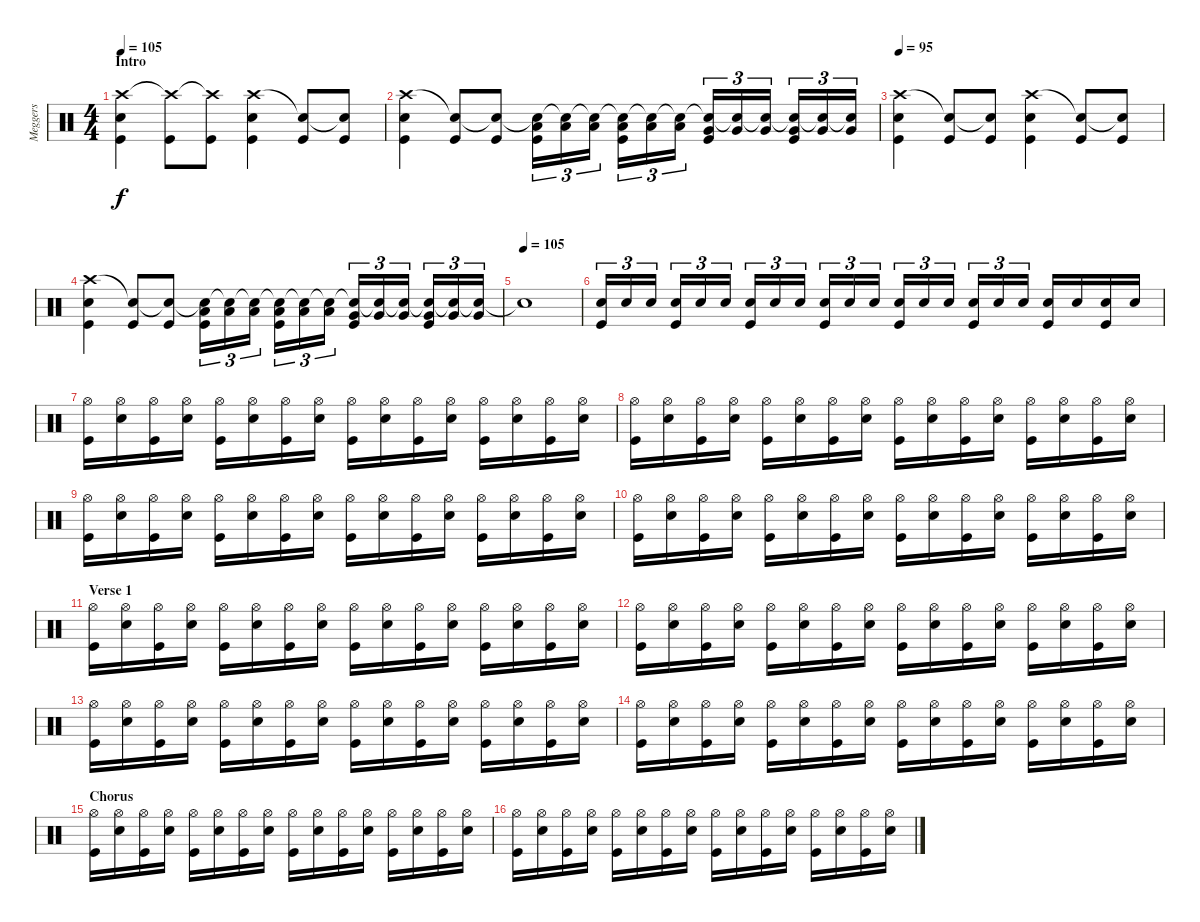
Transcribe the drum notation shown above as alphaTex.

\track ("Meggers" "Meggers") {instrument percussion}
\staff {score}
\articulation defaults
\ts (4 4)
\section ("" "Intro")
\tempo 105
\tempo 95
\tempo 105
\clef neutral
\ks c
("Crash high (hit)" "Snare (hit) 2" "Kick (hit)").4{dy f} ("Crash high (hit)"{t} "Kick (hit)").8 ("Crash high (hit)"{t} "Kick (hit)").8 ("Crash high (hit)" "Snare (hit) 2" "Kick (hit)").4 ("Snare (hit)"{t} "Kick (hit)").8 ("Snare (hit)"{t} "Kick (hit)").8 |
("Crash high (hit)" "Snare (hit) 2" "Kick (hit)").4 ("Snare (hit)"{t} "Kick (hit)").8 ("Snare (hit)"{t} "Kick (hit)").8 ("Snare (hit)"{t} "Low Tom (hit)" "Kick (hit)").16{tu (3 2)} ("Snare (hit)"{t} "Low Tom (hit)").16{tu (3 2)} ("Snare (hit)"{t} "Low Tom (hit)").16{tu (3 2)} ("Snare (hit)"{t} "Low Tom (hit)" "Kick (hit)").16{tu (3 2)} ("Snare (hit)"{t} "Low Tom (hit)").16{tu (3 2)} ("Snare (hit)"{t} "Low Tom (hit)").16{tu (3 2)} ("Snare (hit)"{t} "Very Low Tom (hit)" "Kick (hit)").16{tu (3 2)} ("Snare (hit)"{t} "Very Low Tom (hit)").16{tu (3 2)} ("Snare (hit)"{t} "Very Low Tom (hit)").16{tu (3 2)} ("Snare (hit)"{t} "Very Low Tom (hit)" "Kick (hit)").16{tu (3 2)} ("Snare (hit)"{t} "Very Low Tom (hit)").16{tu (3 2)} ("Snare (hit)"{t} "Very Low Tom (hit)").16{tu (3 2)} |
\tempo 95
("Crash high (hit)" "Snare (hit) 2" "Kick (hit)").4 ("Snare (hit)"{t} "Kick (hit)").8 ("Snare (hit)"{t} "Kick (hit)").8 ("Crash high (hit)" "Snare (hit) 2" "Kick (hit)").4 ("Snare (hit)"{t} "Kick (hit)").8 ("Snare (hit)"{t} "Kick (hit)").8 |
("Crash high (hit)" "Snare (hit) 2" "Kick (hit)").4 ("Snare (hit)"{t} "Kick (hit)").8 ("Snare (hit)"{t} "Kick (hit)").8 ("Snare (hit)"{t} "Low Tom (hit)" "Kick (hit)").16{tu (3 2)} ("Snare (hit)"{t} "Low Tom (hit)").16{tu (3 2)} ("Snare (hit)"{t} "Low Tom (hit)").16{tu (3 2)} ("Snare (hit)"{t} "Low Tom (hit)" "Kick (hit)").16{tu (3 2)} ("Snare (hit)"{t} "Low Tom (hit)").16{tu (3 2)} ("Snare (hit)"{t} "Low Tom (hit)").16{tu (3 2)} ("Snare (hit)"{t} "Very Low Tom (hit)" "Kick (hit)").16{tu (3 2)} ("Snare (hit)"{t} "Very Low Tom (hit)").16{tu (3 2)} ("Snare (hit)"{t} "Very Low Tom (hit)").16{tu (3 2)} ("Snare (hit)"{t} "Very Low Tom (hit)" "Kick (hit)").16{tu (3 2)} ("Snare (hit)"{t} "Very Low Tom (hit)").16{tu (3 2)} ("Snare (hit)"{t} "Very Low Tom (hit)").16{tu (3 2)} |
\tempo (105)
"Snare (hit)"{t}.1 |
("Snare (hit) 2" "Kick (hit)").16{tu (3 2)} "Snare (hit) 2".16{tu (3 2)} "Snare (hit) 2".16{tu (3 2)} ("Snare (hit) 2" "Kick (hit)").16{tu (3 2)} "Snare (hit) 2".16{tu (3 2)} "Snare (hit) 2".16{tu (3 2)} ("Snare (hit) 2" "Kick (hit)").16{tu (3 2)} "Snare (hit) 2".16{tu (3 2)} "Snare (hit) 2".16{tu (3 2)} ("Snare (hit) 2" "Kick (hit)").16{tu (3 2)} "Snare (hit) 2".16{tu (3 2)} "Snare (hit) 2".16{tu (3 2)} ("Snare (hit) 2" "Kick (hit)").16{tu (3 2)} "Snare (hit) 2".16{tu (3 2)} "Snare (hit) 2".16{tu (3 2)} ("Snare (hit) 2" "Kick (hit)").16{tu (3 2)} "Snare (hit) 2".16{tu (3 2)} "Snare (hit) 2".16{tu (3 2)} ("Snare (hit) 2" "Kick (hit)").16 "Snare (hit) 2".16 ("Snare (hit) 2" "Kick (hit)").16 "Snare (hit) 2".16 |
("Hi-Hat (open)" "Kick (hit)").16 ("Hi-Hat (open)" "Snare (hit) 2").16 ("Hi-Hat (open)" "Kick (hit)").16 ("Hi-Hat (open)" "Snare (hit) 2").16 ("Hi-Hat (open)" "Kick (hit)").16 ("Hi-Hat (open)" "Snare (hit) 2").16 ("Hi-Hat (open)" "Kick (hit)").16 ("Hi-Hat (open)" "Snare (hit) 2").16 ("Hi-Hat (open)" "Kick (hit)").16 ("Hi-Hat (open)" "Snare (hit) 2").16 ("Hi-Hat (open)" "Kick (hit)").16 ("Hi-Hat (open)" "Snare (hit) 2").16 ("Hi-Hat (open)" "Kick (hit)").16 ("Hi-Hat (open)" "Snare (hit) 2").16 ("Hi-Hat (open)" "Kick (hit)").16 ("Hi-Hat (open)" "Snare (hit) 2").16 |
("Hi-Hat (open)" "Kick (hit)").16 ("Hi-Hat (open)" "Snare (hit) 2").16 ("Hi-Hat (open)" "Kick (hit)").16 ("Hi-Hat (open)" "Snare (hit) 2").16 ("Hi-Hat (open)" "Kick (hit)").16 ("Hi-Hat (open)" "Snare (hit) 2").16 ("Hi-Hat (open)" "Kick (hit)").16 ("Hi-Hat (open)" "Snare (hit) 2").16 ("Hi-Hat (open)" "Kick (hit)").16 ("Hi-Hat (open)" "Snare (hit) 2").16 ("Hi-Hat (open)" "Kick (hit)").16 ("Hi-Hat (open)" "Snare (hit) 2").16 ("Hi-Hat (open)" "Kick (hit)").16 ("Hi-Hat (open)" "Snare (hit) 2").16 ("Hi-Hat (open)" "Kick (hit)").16 ("Hi-Hat (open)" "Snare (hit) 2").16 |
("Hi-Hat (open)" "Kick (hit)").16 ("Hi-Hat (open)" "Snare (hit) 2").16 ("Hi-Hat (open)" "Kick (hit)").16 ("Hi-Hat (open)" "Snare (hit) 2").16 ("Hi-Hat (open)" "Kick (hit)").16 ("Hi-Hat (open)" "Snare (hit) 2").16 ("Hi-Hat (open)" "Kick (hit)").16 ("Hi-Hat (open)" "Snare (hit) 2").16 ("Hi-Hat (open)" "Kick (hit)").16 ("Hi-Hat (open)" "Snare (hit) 2").16 ("Hi-Hat (open)" "Kick (hit)").16 ("Hi-Hat (open)" "Snare (hit) 2").16 ("Hi-Hat (open)" "Kick (hit)").16 ("Hi-Hat (open)" "Snare (hit) 2").16 ("Hi-Hat (open)" "Kick (hit)").16 ("Hi-Hat (open)" "Snare (hit) 2").16 |
("Hi-Hat (open)" "Kick (hit)").16 ("Hi-Hat (open)" "Snare (hit) 2").16 ("Hi-Hat (open)" "Kick (hit)").16 ("Hi-Hat (open)" "Snare (hit) 2").16 ("Hi-Hat (open)" "Kick (hit)").16 ("Hi-Hat (open)" "Snare (hit) 2").16 ("Hi-Hat (open)" "Kick (hit)").16 ("Hi-Hat (open)" "Snare (hit) 2").16 ("Hi-Hat (open)" "Kick (hit)").16 ("Hi-Hat (open)" "Snare (hit) 2").16 ("Hi-Hat (open)" "Kick (hit)").16 ("Hi-Hat (open)" "Snare (hit) 2").16 ("Hi-Hat (open)" "Kick (hit)").16 ("Hi-Hat (open)" "Snare (hit) 2").16 ("Hi-Hat (open)" "Kick (hit)").16 ("Hi-Hat (open)" "Snare (hit) 2").16 |
\section ("" "Verse 1")
("Hi-Hat (open)" "Kick (hit)").16 ("Hi-Hat (open)" "Snare (hit) 2").16 ("Hi-Hat (open)" "Kick (hit)").16 ("Hi-Hat (open)" "Snare (hit) 2").16 ("Hi-Hat (open)" "Kick (hit)").16 ("Hi-Hat (open)" "Snare (hit) 2").16 ("Hi-Hat (open)" "Kick (hit)").16 ("Hi-Hat (open)" "Snare (hit) 2").16 ("Hi-Hat (open)" "Kick (hit)").16 ("Hi-Hat (open)" "Snare (hit) 2").16 ("Hi-Hat (open)" "Kick (hit)").16 ("Hi-Hat (open)" "Snare (hit) 2").16 ("Hi-Hat (open)" "Kick (hit)").16 ("Hi-Hat (open)" "Snare (hit) 2").16 ("Hi-Hat (open)" "Kick (hit)").16 ("Hi-Hat (open)" "Snare (hit) 2").16 |
("Hi-Hat (open)" "Kick (hit)").16 ("Hi-Hat (open)" "Snare (hit) 2").16 ("Hi-Hat (open)" "Kick (hit)").16 ("Hi-Hat (open)" "Snare (hit) 2").16 ("Hi-Hat (open)" "Kick (hit)").16 ("Hi-Hat (open)" "Snare (hit) 2").16 ("Hi-Hat (open)" "Kick (hit)").16 ("Hi-Hat (open)" "Snare (hit) 2").16 ("Hi-Hat (open)" "Kick (hit)").16 ("Hi-Hat (open)" "Snare (hit) 2").16 ("Hi-Hat (open)" "Kick (hit)").16 ("Hi-Hat (open)" "Snare (hit) 2").16 ("Hi-Hat (open)" "Kick (hit)").16 ("Hi-Hat (open)" "Snare (hit) 2").16 ("Hi-Hat (open)" "Kick (hit)").16 ("Hi-Hat (open)" "Snare (hit) 2").16 |
("Hi-Hat (open)" "Kick (hit)").16 ("Hi-Hat (open)" "Snare (hit) 2").16 ("Hi-Hat (open)" "Kick (hit)").16 ("Hi-Hat (open)" "Snare (hit) 2").16 ("Hi-Hat (open)" "Kick (hit)").16 ("Hi-Hat (open)" "Snare (hit) 2").16 ("Hi-Hat (open)" "Kick (hit)").16 ("Hi-Hat (open)" "Snare (hit) 2").16 ("Hi-Hat (open)" "Kick (hit)").16 ("Hi-Hat (open)" "Snare (hit) 2").16 ("Hi-Hat (open)" "Kick (hit)").16 ("Hi-Hat (open)" "Snare (hit) 2").16 ("Hi-Hat (open)" "Kick (hit)").16 ("Hi-Hat (open)" "Snare (hit) 2").16 ("Hi-Hat (open)" "Kick (hit)").16 ("Hi-Hat (open)" "Snare (hit) 2").16 |
("Hi-Hat (open)" "Kick (hit)").16 ("Hi-Hat (open)" "Snare (hit) 2").16 ("Hi-Hat (open)" "Kick (hit)").16 ("Hi-Hat (open)" "Snare (hit) 2").16 ("Hi-Hat (open)" "Kick (hit)").16 ("Hi-Hat (open)" "Snare (hit) 2").16 ("Hi-Hat (open)" "Kick (hit)").16 ("Hi-Hat (open)" "Snare (hit) 2").16 ("Hi-Hat (open)" "Kick (hit)").16 ("Hi-Hat (open)" "Snare (hit) 2").16 ("Hi-Hat (open)" "Kick (hit)").16 ("Hi-Hat (open)" "Snare (hit) 2").16 ("Hi-Hat (open)" "Kick (hit)").16 ("Hi-Hat (open)" "Snare (hit) 2").16 ("Hi-Hat (open)" "Kick (hit)").16 ("Hi-Hat (open)" "Snare (hit) 2").16 |
\section ("" "Chorus")
("Hi-Hat (open)" "Kick (hit)").16 ("Hi-Hat (open)" "Snare (hit) 2").16 ("Hi-Hat (open)" "Kick (hit)").16 ("Hi-Hat (open)" "Snare (hit) 2").16 ("Hi-Hat (open)" "Kick (hit)").16 ("Hi-Hat (open)" "Snare (hit) 2").16 ("Hi-Hat (open)" "Kick (hit)").16 ("Hi-Hat (open)" "Snare (hit) 2").16 ("Hi-Hat (open)" "Kick (hit)").16 ("Hi-Hat (open)" "Snare (hit) 2").16 ("Hi-Hat (open)" "Kick (hit)").16 ("Hi-Hat (open)" "Snare (hit) 2").16 ("Hi-Hat (open)" "Kick (hit)").16 ("Hi-Hat (open)" "Snare (hit) 2").16 ("Hi-Hat (open)" "Kick (hit)").16 ("Hi-Hat (open)" "Snare (hit) 2").16 |
("Hi-Hat (open)" "Kick (hit)").16 ("Hi-Hat (open)" "Snare (hit) 2").16 ("Hi-Hat (open)" "Kick (hit)").16 ("Hi-Hat (open)" "Snare (hit) 2").16 ("Hi-Hat (open)" "Kick (hit)").16 ("Hi-Hat (open)" "Snare (hit) 2").16 ("Hi-Hat (open)" "Kick (hit)").16 ("Hi-Hat (open)" "Snare (hit) 2").16 ("Hi-Hat (open)" "Kick (hit)").16 ("Hi-Hat (open)" "Snare (hit) 2").16 ("Hi-Hat (open)" "Kick (hit)").16 ("Hi-Hat (open)" "Snare (hit) 2").16 ("Hi-Hat (open)" "Kick (hit)").16 ("Hi-Hat (open)" "Snare (hit) 2").16 ("Hi-Hat (open)" "Kick (hit)").16 ("Hi-Hat (open)" "Snare (hit) 2").16
